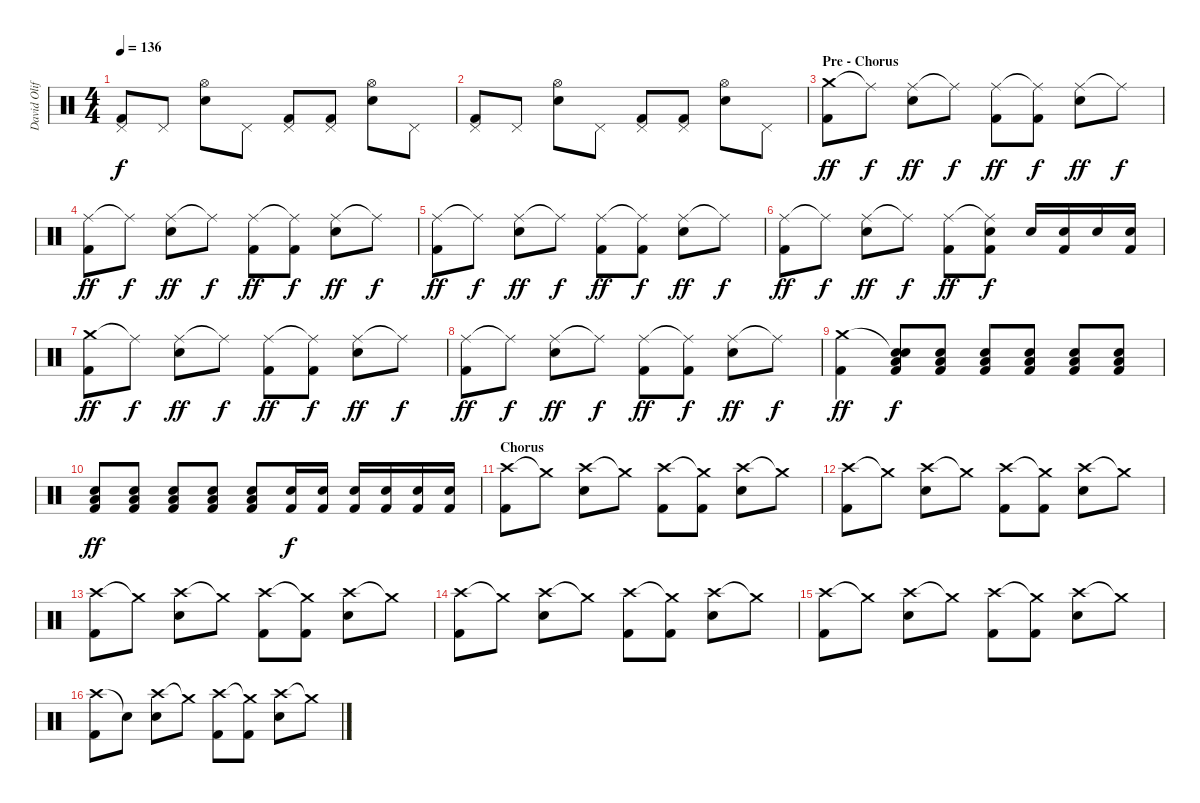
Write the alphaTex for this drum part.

\track ("David Oliffe" "David Olif") {instrument percussion}
\staff {score}
\articulation defaults
\ts (4 4)
\tempo 136
\clef neutral
\ks c
("Pedal Hi-Hat (hit)" "Kick (hit) 2").8{dy f} "Pedal Hi-Hat (hit)".8 ("Hi-Hat (open)" "Electric Snare (hit)").8 "Pedal Hi-Hat (hit)".8 ("Pedal Hi-Hat (hit)" "Kick (hit) 2").8 ("Pedal Hi-Hat (hit)" "Kick (hit) 2").8 ("Hi-Hat (open)" "Electric Snare (hit)").8 "Pedal Hi-Hat (hit)".8 |
("Pedal Hi-Hat (hit)" "Kick (hit) 2").8 "Pedal Hi-Hat (hit)".8 ("Hi-Hat (open)" "Electric Snare (hit)").8 "Pedal Hi-Hat (hit)".8 ("Pedal Hi-Hat (hit)" "Kick (hit) 2").8 ("Pedal Hi-Hat (hit)" "Kick (hit) 2").8 ("Hi-Hat (open)" "Electric Snare (hit)").8 "Pedal Hi-Hat (hit)".8 |
\section ("" "Pre - Chorus")
("Crash medium (hit)" "Kick (hit) 2").8{dy ff} "Ride (middle)"{t}.8{dy f} ("Ride (middle)" "Electric Snare (hit)").8{dy ff} "Ride (middle)"{t}.8{dy f} ("Ride (middle)" "Kick (hit) 2").8{dy ff} ("Ride (middle)"{t} "Kick (hit) 2").8{dy f} ("Ride (middle)" "Electric Snare (hit)").8{dy ff} "Ride (middle)"{t}.8{dy f} |
("Ride (middle)" "Kick (hit) 2").8{dy ff} "Ride (middle)"{t}.8{dy f} ("Ride (middle)" "Electric Snare (hit)").8{dy ff} "Ride (middle)"{t}.8{dy f} ("Ride (middle)" "Kick (hit) 2").8{dy ff} ("Ride (middle)"{t} "Kick (hit) 2").8{dy f} ("Ride (middle)" "Electric Snare (hit)").8{dy ff} "Ride (middle)"{t}.8{dy f} |
("Ride (middle)" "Kick (hit) 2").8{dy ff} "Ride (middle)"{t}.8{dy f} ("Ride (middle)" "Electric Snare (hit)").8{dy ff} "Ride (middle)"{t}.8{dy f} ("Ride (middle)" "Kick (hit) 2").8{dy ff} ("Ride (middle)"{t} "Kick (hit) 2").8{dy f} ("Ride (middle)" "Electric Snare (hit)").8{dy ff} "Ride (middle)"{t}.8{dy f} |
("Ride (middle)" "Kick (hit) 2").8{dy ff} "Ride (middle)"{t}.8{dy f} ("Ride (middle)" "Electric Snare (hit)").8{dy ff} "Ride (middle)"{t}.8{dy f} ("Ride (middle)" "Kick (hit) 2").8{dy ff} ("Ride (middle)"{t} "Electric Snare (hit)" "Kick (hit) 2").8{dy f} "Electric Snare (hit)".16 ("Electric Snare (hit)" "Kick (hit) 2").16 "Electric Snare (hit)".16 ("Electric Snare (hit)" "Kick (hit) 2").16 |
("Crash medium (hit)" "Kick (hit) 2").8{dy ff} "Ride (middle)"{t}.8{dy f} ("Ride (middle)" "Electric Snare (hit)").8{dy ff} "Ride (middle)"{t}.8{dy f} ("Ride (middle)" "Kick (hit) 2").8{dy ff} ("Ride (middle)"{t} "Kick (hit) 2").8{dy f} ("Ride (middle)" "Electric Snare (hit)").8{dy ff} "Ride (middle)"{t}.8{dy f} |
("Ride (middle)" "Kick (hit) 2").8{dy ff} "Ride (middle)"{t}.8{dy f} ("Ride (middle)" "Electric Snare (hit)").8{dy ff} "Ride (middle)"{t}.8{dy f} ("Ride (middle)" "Kick (hit) 2").8{dy ff} ("Ride (middle)"{t} "Kick (hit) 2").8{dy f} ("Ride (middle)" "Electric Snare (hit)").8{dy ff} "Ride (middle)"{t}.8{dy f} |
("Crash medium (hit)" "Kick (hit) 2").4{dy ff} ("Snare (hit)"{t} "Snare (hit) 2" "Low Tom (hit)" "Kick (hit) 2").8{dy f volume 10} ("Snare (hit) 2" "Low Tom (hit)" "Kick (hit) 2").8 ("Snare (hit) 2" "Low Tom (hit)" "Kick (hit) 2").8{volume 12} ("Snare (hit) 2" "Low Tom (hit)" "Kick (hit) 2").8 ("Snare (hit) 2" "Low Tom (hit)" "Kick (hit) 2").8{volume 14} ("Snare (hit) 2" "Low Tom (hit)" "Kick (hit) 2").8 |
("Snare (hit) 2" "Low Tom (hit)" "Kick (hit) 2").8{dy ff volume 16} ("Snare (hit) 2" "Low Tom (hit)" "Kick (hit) 2").8 ("Snare (hit) 2" "Low Tom (hit)" "Kick (hit) 2").8 ("Snare (hit) 2" "Low Tom (hit)" "Kick (hit) 2").8 ("Snare (hit) 2" "Low Tom (hit)" "Kick (hit) 2").8 ("Electric Snare (hit)" "Kick (hit) 2").16{dy f} ("Electric Snare (hit)" "Kick (hit) 2").16 ("Electric Snare (hit)" "Kick (hit) 2").16 ("Electric Snare (hit)" "Kick (hit) 2").16 ("Electric Snare (hit)" "Kick (hit) 2").16 ("Electric Snare (hit)" "Kick (hit) 2").16 |
\section ("" "Chorus")
("Crash high (hit)" "Kick (hit) 2").8 "Crash medium (hit)"{t}.8 ("Crash high (hit)" "Electric Snare (hit)").8 "Crash medium (hit)"{t}.8 ("Crash high (hit)" "Kick (hit) 2").8 ("Crash medium (hit)"{t} "Kick (hit) 2").8 ("Crash high (hit)" "Electric Snare (hit)").8 "Crash medium (hit)"{t}.8 |
("Crash high (hit)" "Kick (hit) 2").8 "Crash medium (hit)"{t}.8 ("Crash high (hit)" "Electric Snare (hit)").8 "Crash medium (hit)"{t}.8 ("Crash high (hit)" "Kick (hit) 2").8 ("Crash medium (hit)"{t} "Kick (hit) 2").8 ("Crash high (hit)" "Electric Snare (hit)").8 "Crash medium (hit)"{t}.8 |
("Crash high (hit)" "Kick (hit) 2").8 "Crash medium (hit)"{t}.8 ("Crash high (hit)" "Electric Snare (hit)").8 "Crash medium (hit)"{t}.8 ("Crash high (hit)" "Kick (hit) 2").8 ("Crash medium (hit)"{t} "Kick (hit) 2").8 ("Crash high (hit)" "Electric Snare (hit)").8 "Crash medium (hit)"{t}.8 |
("Crash high (hit)" "Kick (hit) 2").8 "Crash medium (hit)"{t}.8 ("Crash high (hit)" "Electric Snare (hit)").8 "Crash medium (hit)"{t}.8 ("Crash high (hit)" "Kick (hit) 2").8 ("Crash medium (hit)"{t} "Kick (hit) 2").8 ("Crash high (hit)" "Electric Snare (hit)").8 "Crash medium (hit)"{t}.8 |
("Crash high (hit)" "Kick (hit) 2").8 "Crash medium (hit)"{t}.8 ("Crash high (hit)" "Electric Snare (hit)").8 "Crash medium (hit)"{t}.8 ("Crash high (hit)" "Kick (hit) 2").8 ("Crash medium (hit)"{t} "Kick (hit) 2").8 ("Crash high (hit)" "Electric Snare (hit)").8 "Crash medium (hit)"{t}.8 |
("Crash high (hit)" "Kick (hit) 2").8 "Snare (hit)"{t}.8 ("Crash high (hit)" "Electric Snare (hit)").8 "Crash medium (hit)"{t}.8 ("Crash high (hit)" "Kick (hit) 2").8 ("Crash medium (hit)"{t} "Kick (hit) 2").8 ("Crash high (hit)" "Electric Snare (hit)").8 "Crash medium (hit)"{t}.8
